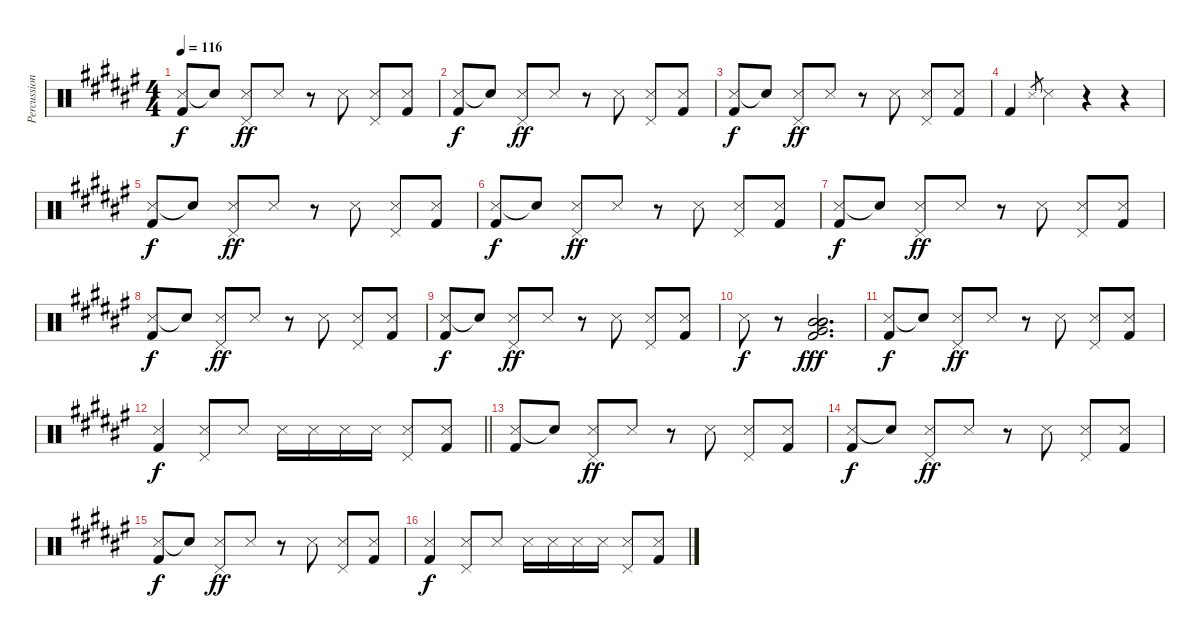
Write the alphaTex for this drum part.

\track ("Percussion" "Percussion") {instrument percussion}
\staff {score}
\articulation defaults
\ts (4 4)
\tempo 116
\clef neutral
\ks f#
("Snare (side stick) 3" "Kick (hit) 2").8{dy f} "Snare (hit)"{t}.8 ("Snare (side stick) 3" "Pedal Hi-Hat (hit)").8{dy ff} "Snare (side stick) 3".8 r.8 "Snare (side stick) 3".8 ("Snare (side stick) 3" "Pedal Hi-Hat (hit)").8 ("Snare (side stick) 3" "Kick (hit) 2").8 |
("Snare (side stick) 3" "Kick (hit) 2").8{dy f} "Snare (hit)"{t}.8 ("Snare (side stick) 3" "Pedal Hi-Hat (hit)").8{dy ff} "Snare (side stick) 3".8 r.8 "Snare (side stick) 3".8 ("Snare (side stick) 3" "Pedal Hi-Hat (hit)").8 ("Snare (side stick) 3" "Kick (hit) 2").8 |
("Snare (side stick) 3" "Kick (hit) 2").8{dy f} "Snare (hit)"{t}.8 ("Snare (side stick) 3" "Pedal Hi-Hat (hit)").8{dy ff} "Snare (side stick) 3".8 r.8 "Snare (side stick) 3".8 ("Snare (side stick) 3" "Pedal Hi-Hat (hit)").8 ("Snare (side stick) 3" "Kick (hit) 2").8 |
"Kick (hit) 2".4 "Snare (side stick) 3".8{gr} "Snare (side stick) 3".4 r.4 r.4 |
("Snare (side stick) 3" "Kick (hit) 2").8{dy f} "Snare (hit)"{t}.8 ("Snare (side stick) 3" "Pedal Hi-Hat (hit)").8{dy ff} "Snare (side stick) 3".8 r.8 "Snare (side stick) 3".8 ("Snare (side stick) 3" "Pedal Hi-Hat (hit)").8 ("Snare (side stick) 3" "Kick (hit) 2").8 |
("Snare (side stick) 3" "Kick (hit) 2").8{dy f} "Snare (hit)"{t}.8 ("Snare (side stick) 3" "Pedal Hi-Hat (hit)").8{dy ff} "Snare (side stick) 3".8 r.8 "Snare (side stick) 3".8 ("Snare (side stick) 3" "Pedal Hi-Hat (hit)").8 ("Snare (side stick) 3" "Kick (hit) 2").8 |
("Snare (side stick) 3" "Kick (hit) 2").8{dy f} "Snare (hit)"{t}.8 ("Snare (side stick) 3" "Pedal Hi-Hat (hit)").8{dy ff} "Snare (side stick) 3".8 r.8 "Snare (side stick) 3".8 ("Snare (side stick) 3" "Pedal Hi-Hat (hit)").8 ("Snare (side stick) 3" "Kick (hit) 2").8 |
("Snare (side stick) 3" "Kick (hit) 2").8{dy f} "Snare (hit)"{t}.8 ("Snare (side stick) 3" "Pedal Hi-Hat (hit)").8{dy ff} "Snare (side stick) 3".8 r.8 "Snare (side stick) 3".8 ("Snare (side stick) 3" "Pedal Hi-Hat (hit)").8 ("Snare (side stick) 3" "Kick (hit) 2").8 |
("Snare (side stick) 3" "Kick (hit) 2").8{dy f} "Snare (hit)"{t}.8 ("Snare (side stick) 3" "Pedal Hi-Hat (hit)").8{dy ff} "Snare (side stick) 3".8 r.8 "Snare (side stick) 3".8 ("Snare (side stick) 3" "Pedal Hi-Hat (hit)").8 ("Snare (side stick) 3" "Kick (hit) 2").8 |
"Snare (side stick) 3".8{dy f} r.8 ("Mid Tom (hit)" "Mid Tom (hit)" "Mid Tom (hit)" "Very Low Tom (hit)" "Kick (hit) 2").2{d dy fff} |
("Snare (side stick) 3" "Kick (hit) 2").8{dy f} "Snare (hit)"{t}.8 ("Snare (side stick) 3" "Pedal Hi-Hat (hit)").8{dy ff} "Snare (side stick) 3".8 r.8 "Snare (side stick) 3".8 ("Snare (side stick) 3" "Pedal Hi-Hat (hit)").8 ("Snare (side stick) 3" "Kick (hit) 2").8 |
\barLineRight lightlight
("Snare (side stick) 3" "Kick (hit) 2").4{dy f} ("Snare (side stick) 3" "Pedal Hi-Hat (hit)").8 "Snare (side stick) 3".8 "Snare (side stick) 3".16 "Snare (side stick) 3".16 "Snare (side stick) 3".16 "Snare (side stick) 3".16 ("Snare (side stick) 3" "Pedal Hi-Hat (hit)").8 ("Snare (side stick) 3" "Kick (hit) 2").8 |
("Snare (side stick) 3" "Kick (hit) 2").8 "Snare (hit)"{t}.8 ("Snare (side stick) 3" "Pedal Hi-Hat (hit)").8{dy ff} "Snare (side stick) 3".8 r.8 "Snare (side stick) 3".8 ("Snare (side stick) 3" "Pedal Hi-Hat (hit)").8 ("Snare (side stick) 3" "Kick (hit) 2").8 |
("Snare (side stick) 3" "Kick (hit) 2").8{dy f} "Snare (hit)"{t}.8 ("Snare (side stick) 3" "Pedal Hi-Hat (hit)").8{dy ff} "Snare (side stick) 3".8 r.8 "Snare (side stick) 3".8 ("Snare (side stick) 3" "Pedal Hi-Hat (hit)").8 ("Snare (side stick) 3" "Kick (hit) 2").8 |
("Snare (side stick) 3" "Kick (hit) 2").8{dy f} "Snare (hit)"{t}.8 ("Snare (side stick) 3" "Pedal Hi-Hat (hit)").8{dy ff} "Snare (side stick) 3".8 r.8 "Snare (side stick) 3".8 ("Snare (side stick) 3" "Pedal Hi-Hat (hit)").8 ("Snare (side stick) 3" "Kick (hit) 2").8 |
("Snare (side stick) 3" "Kick (hit) 2").4{dy f} ("Snare (side stick) 3" "Pedal Hi-Hat (hit)").8 "Snare (side stick) 3".8 "Snare (side stick) 3".16 "Snare (side stick) 3".16 "Snare (side stick) 3".16 "Snare (side stick) 3".16 ("Snare (side stick) 3" "Pedal Hi-Hat (hit)").8 ("Snare (side stick) 3" "Kick (hit) 2").8
